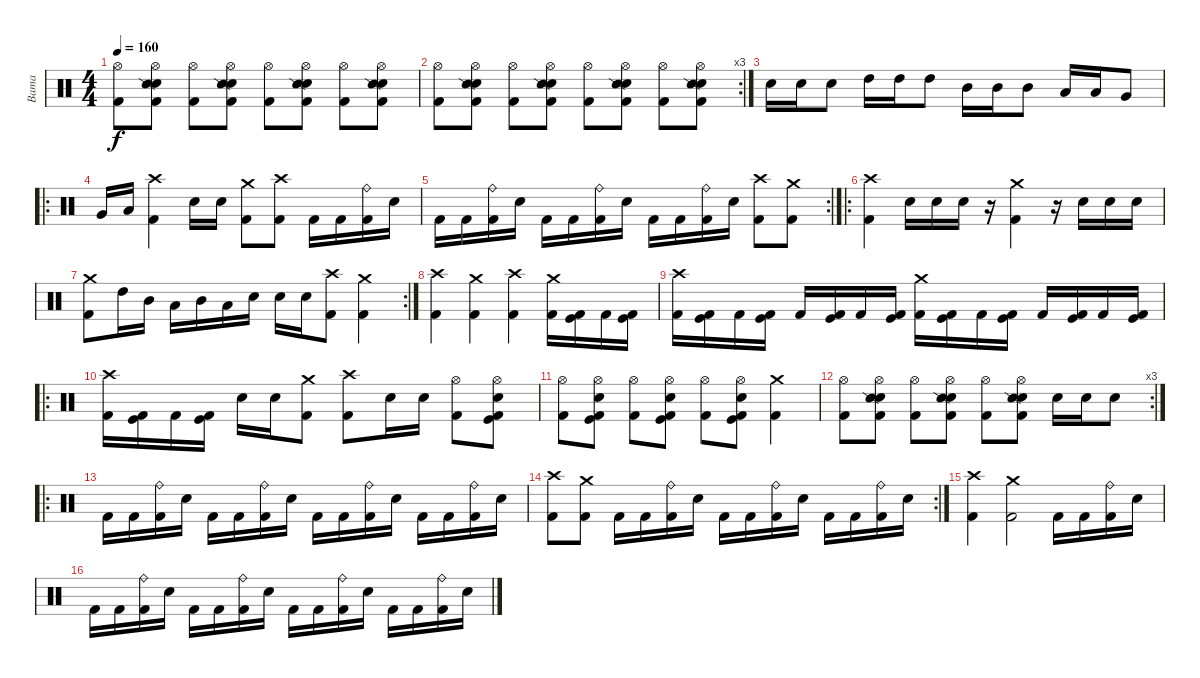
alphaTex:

\track ("Bama" "Bama") {instrument percussion}
\staff {score}
\articulation defaults
\ts (4 4)
\tempo 160
\clef neutral
\ks c
("Hi-Hat (open)" "Kick (hit) 2").8{dy f} ("Hi-Hat (open)" "Electric Snare (hit)" "Snare (side stick) 2" "Kick (hit) 2").8 ("Hi-Hat (open)" "Kick (hit) 2").8 ("Hi-Hat (open)" "Electric Snare (hit)" "Snare (side stick) 2" "Kick (hit) 2").8 ("Hi-Hat (open)" "Kick (hit) 2").8 ("Hi-Hat (open)" "Electric Snare (hit)" "Snare (side stick) 2" "Kick (hit) 2").8 ("Hi-Hat (open)" "Kick (hit) 2").8 ("Hi-Hat (open)" "Electric Snare (hit)" "Snare (side stick) 2" "Kick (hit) 2").8 |
\rc 3
("Hi-Hat (open)" "Kick (hit) 2").8 ("Hi-Hat (open)" "Electric Snare (hit)" "Snare (side stick) 2" "Kick (hit) 2").8 ("Hi-Hat (open)" "Kick (hit) 2").8 ("Hi-Hat (open)" "Electric Snare (hit)" "Snare (side stick) 2" "Kick (hit) 2").8 ("Hi-Hat (open)" "Kick (hit) 2").8 ("Hi-Hat (open)" "Electric Snare (hit)" "Snare (side stick) 2" "Kick (hit) 2").8 ("Hi-Hat (open)" "Kick (hit) 2").8 ("Hi-Hat (open)" "Electric Snare (hit)" "Snare (side stick) 2" "Kick (hit) 2").8 |
"Electric Snare (hit)".16 "Electric Snare (hit)".16 "Electric Snare (hit)".8 "High Tom (hit)".16 "High Tom (hit)".16 "High Tom (hit)".8 "Mid Tom (hit)".16 "Mid Tom (hit)".16 "Mid Tom (hit)".8 "Low Tom (hit)".16 "Low Tom (hit)".16 "Very Low Tom (hit)".8 |
\ro "Very Low Tom (hit)".16 "Low Floor Tom (hit)".16
("Crash high (hit)" "Kick (hit) 2").4 "Electric Snare (hit)".16 "Electric Snare (hit)".16 ("Crash medium (hit)" "Kick (hit) 2").8 ("Crash high (hit)" "Kick (hit) 2").8 "Kick (hit) 2".16 "Kick (hit) 2".16 ("Ride (bell)" "Kick (hit) 2").16 "Electric Snare (hit)".16 |
\rc 2 "Kick (hit) 2".16 "Kick (hit) 2".16
("Ride (bell)" "Kick (hit) 2").16 "Electric Snare (hit)".16 "Kick (hit) 2".16 "Kick (hit) 2".16 ("Ride (bell)" "Kick (hit) 2").16 "Electric Snare (hit)".16 "Kick (hit) 2".16 "Kick (hit) 2".16 ("Ride (bell)" "Kick (hit) 2").16 "Electric Snare (hit)".16 ("Crash high (hit)" "Kick (hit) 2").8 ("Crash medium (hit)" "Kick (hit) 2").8 |
\ro
("Crash high (hit)" "Kick (hit) 2").4 "Electric Snare (hit)".16 "Electric Snare (hit)".16 "Electric Snare (hit)".16 r.16 ("Crash medium (hit)" "Kick (hit) 2").4 r.16 "Electric Snare (hit)".16 "Electric Snare (hit)".16 "Electric Snare (hit)".16 |
\rc 2
("Crash medium (hit)" "Kick (hit) 2").8 "High Tom (hit)".16 "Mid Tom (hit)".16 "Low Tom (hit)".16 "Mid Tom (hit)".16 "Low Tom (hit)".16 "Electric Snare (hit)".16 "Electric Snare (hit)".16 "Electric Snare (hit)".16 ("Crash high (hit)" "Kick (hit) 2").8 ("Crash medium (hit)" "Kick (hit) 2").4 |
("Crash high (hit)" "Kick (hit) 2").4 ("Crash medium (hit)" "Kick (hit) 2").4 ("Crash high (hit)" "Kick (hit) 2").4 ("Crash medium (hit)" "Kick (hit) 2").16 ("Kick (hit)" "Kick (hit) 2").16 "Kick (hit) 2".16 ("Kick (hit)" "Kick (hit) 2").16 |
("Crash high (hit)" "Kick (hit) 2").16 ("Kick (hit)" "Kick (hit) 2").16 "Kick (hit) 2".16 ("Kick (hit)" "Kick (hit) 2").16 "Kick (hit) 2".16 ("Kick (hit)" "Kick (hit) 2").16 "Kick (hit) 2".16 ("Kick (hit)" "Kick (hit) 2").16 ("Crash medium (hit)" "Kick (hit) 2").16 ("Kick (hit)" "Kick (hit) 2").16 "Kick (hit) 2".16 ("Kick (hit)" "Kick (hit) 2").16 "Kick (hit) 2".16 ("Kick (hit)" "Kick (hit) 2").16 "Kick (hit) 2".16 ("Kick (hit)" "Kick (hit) 2").16 |
\ro
("Crash high (hit)" "Kick (hit) 2").16 ("Kick (hit)" "Kick (hit) 2").16 "Kick (hit) 2".16 ("Kick (hit)" "Kick (hit) 2").16 "Electric Snare (hit)".16 "Electric Snare (hit)".16 ("Crash medium (hit)" "Kick (hit) 2").8 ("Crash high (hit)" "Kick (hit) 2").8 "Electric Snare (hit)".16 "Electric Snare (hit)".16 ("Hi-Hat (open)" "Kick (hit) 2").8 ("Hi-Hat (open)" "Electric Snare (hit)" "Kick (hit)" "Kick (hit) 2").8 |
("Hi-Hat (open)" "Kick (hit) 2").8 ("Hi-Hat (open)" "Electric Snare (hit)" "Kick (hit)" "Kick (hit) 2").8 ("Hi-Hat (open)" "Kick (hit) 2").8 ("Hi-Hat (open)" "Electric Snare (hit)" "Kick (hit)" "Kick (hit) 2").8 ("Hi-Hat (open)" "Kick (hit) 2").8 ("Hi-Hat (open)" "Electric Snare (hit)" "Kick (hit)" "Kick (hit) 2").8 ("Crash medium (hit)" "Kick (hit) 2").4 |
\rc 3
("Hi-Hat (open)" "Kick (hit) 2").8 ("Hi-Hat (open)" "Electric Snare (hit)" "Snare (side stick) 2" "Kick (hit) 2").8 ("Hi-Hat (open)" "Kick (hit) 2").8 ("Hi-Hat (open)" "Electric Snare (hit)" "Snare (side stick) 2" "Kick (hit) 2").8 ("Hi-Hat (open)" "Kick (hit) 2").8 ("Hi-Hat (open)" "Electric Snare (hit)" "Snare (side stick) 2" "Kick (hit) 2").8 "Electric Snare (hit)".16 "Electric Snare (hit)".16 "Electric Snare (hit)".8 |
\ro "Kick (hit) 2".16 "Kick (hit) 2".16
("Ride (bell)" "Kick (hit) 2").16 "Electric Snare (hit)".16 "Kick (hit) 2".16 "Kick (hit) 2".16 ("Ride (bell)" "Kick (hit) 2").16 "Electric Snare (hit)".16 "Kick (hit) 2".16 "Kick (hit) 2".16 ("Ride (bell)" "Kick (hit) 2").16 "Electric Snare (hit)".16 "Kick (hit) 2".16 "Kick (hit) 2".16 ("Ride (bell)" "Kick (hit) 2").16 "Electric Snare (hit)".16 |
\rc 2
("Crash high (hit)" "Kick (hit) 2").8 ("Crash medium (hit)" "Kick (hit) 2").8 "Kick (hit) 2".16 "Kick (hit) 2".16 ("Ride (bell)" "Kick (hit) 2").16 "Electric Snare (hit)".16 "Kick (hit) 2".16 "Kick (hit) 2".16 ("Ride (bell)" "Kick (hit) 2").16 "Electric Snare (hit)".16 "Kick (hit) 2".16 "Kick (hit) 2".16 ("Ride (bell)" "Kick (hit) 2").16 "Electric Snare (hit)".16 |
("Crash high (hit)" "Kick (hit) 2").4 ("Crash medium (hit)" "Kick (hit) 2").2 "Kick (hit) 2".16 "Kick (hit) 2".16 ("Ride (bell)" "Kick (hit) 2").16 "Electric Snare (hit)".16 |
"Kick (hit) 2".16 "Kick (hit) 2".16 ("Ride (bell)" "Kick (hit) 2").16 "Electric Snare (hit)".16 "Kick (hit) 2".16 "Kick (hit) 2".16 ("Ride (bell)" "Kick (hit) 2").16 "Electric Snare (hit)".16 "Kick (hit) 2".16 "Kick (hit) 2".16 ("Ride (bell)" "Kick (hit) 2").16 "Electric Snare (hit)".16 "Kick (hit) 2".16 "Kick (hit) 2".16 ("Ride (bell)" "Kick (hit) 2").16 "Electric Snare (hit)".16
